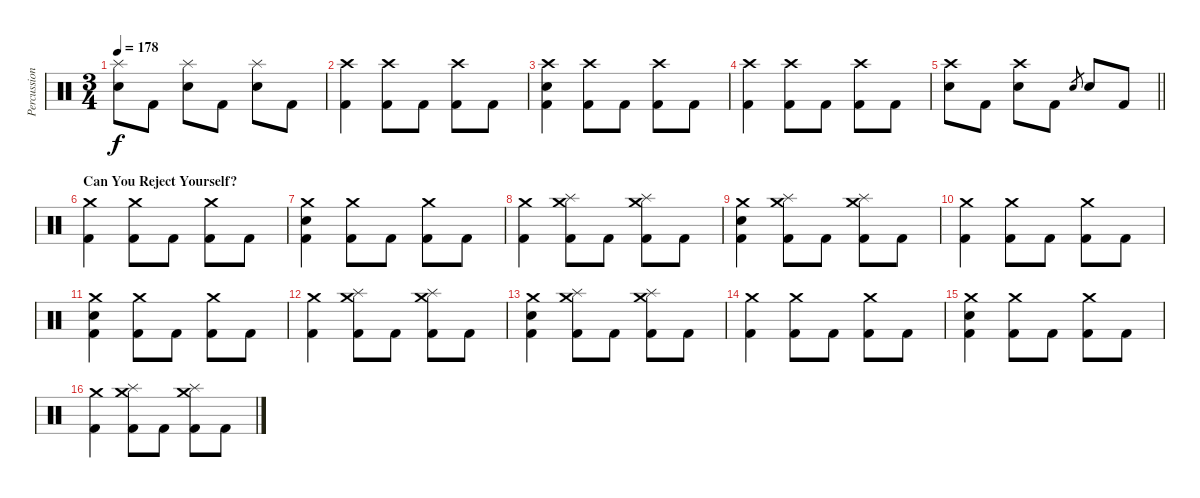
\track ("Percussion" "Percussion") {instrument percussion}
\staff {score}
\articulation defaults
\ts (3 4)
\tempo 178
\clef neutral
\ks c
("Splash (hit)" "Electric Snare (hit)").8{dy f} "Kick (hit) 2".8 ("Splash (hit)" "Electric Snare (hit)").8 "Kick (hit) 2".8 ("Splash (hit)" "Electric Snare (hit)").8 "Kick (hit) 2".8 |
("Crash high (hit)" "Kick (hit) 2").4 ("Crash high (hit)" "Kick (hit) 2").8 "Kick (hit) 2".8 ("Crash high (hit)" "Kick (hit) 2").8 "Kick (hit) 2".8 |
("Crash high (hit)" "Electric Snare (hit)" "Kick (hit) 2").4 ("Crash high (hit)" "Kick (hit) 2").8 "Kick (hit) 2".8 ("Crash high (hit)" "Kick (hit) 2").8 "Kick (hit) 2".8 |
("Crash high (hit)" "Kick (hit) 2").4 ("Crash high (hit)" "Kick (hit) 2").8 "Kick (hit) 2".8 ("Crash high (hit)" "Kick (hit) 2").8 "Kick (hit) 2".8 |
\barLineRight lightlight
("Crash high (hit)" "Electric Snare (hit)").8 "Kick (hit) 2".8 ("Crash high (hit)" "Electric Snare (hit)").8 "Kick (hit) 2".8 "Electric Snare (hit)".8{gr} "Electric Snare (hit)".8 "Kick (hit) 2".8 |
\section ("" "Can You Reject Yourself?")
("Crash medium (hit)" "Kick (hit) 2").4 ("Crash medium (hit)" "Kick (hit) 2").8 "Kick (hit) 2".8 ("Crash medium (hit)" "Kick (hit) 2").8 "Kick (hit) 2".8 |
("Crash medium (hit)" "Electric Snare (hit)" "Kick (hit) 2").4 ("Crash medium (hit)" "Kick (hit) 2").8 "Kick (hit) 2".8 ("Crash medium (hit)" "Kick (hit) 2").8 "Kick (hit) 2".8 |
("Crash medium (hit)" "Kick (hit) 2").4 ("Crash medium (hit)" "Splash (hit)" "Kick (hit) 2").8 "Kick (hit) 2".8 ("Crash medium (hit)" "Splash (hit)" "Kick (hit) 2").8 "Kick (hit) 2".8 |
("Crash medium (hit)" "Electric Snare (hit)" "Kick (hit) 2").4 ("Crash medium (hit)" "Splash (hit)" "Kick (hit) 2").8 "Kick (hit) 2".8 ("Crash medium (hit)" "Splash (hit)" "Kick (hit) 2").8 "Kick (hit) 2".8 |
("Crash medium (hit)" "Kick (hit) 2").4 ("Crash medium (hit)" "Kick (hit) 2").8 "Kick (hit) 2".8 ("Crash medium (hit)" "Kick (hit) 2").8 "Kick (hit) 2".8 |
("Crash medium (hit)" "Electric Snare (hit)" "Kick (hit) 2").4 ("Crash medium (hit)" "Kick (hit) 2").8 "Kick (hit) 2".8 ("Crash medium (hit)" "Kick (hit) 2").8 "Kick (hit) 2".8 |
("Crash medium (hit)" "Kick (hit) 2").4 ("Crash medium (hit)" "Splash (hit)" "Kick (hit) 2").8 "Kick (hit) 2".8 ("Crash medium (hit)" "Splash (hit)" "Kick (hit) 2").8 "Kick (hit) 2".8 |
("Crash medium (hit)" "Electric Snare (hit)" "Kick (hit) 2").4 ("Crash medium (hit)" "Splash (hit)" "Kick (hit) 2").8 "Kick (hit) 2".8 ("Crash medium (hit)" "Splash (hit)" "Kick (hit) 2").8 "Kick (hit) 2".8 |
("Crash medium (hit)" "Kick (hit) 2").4 ("Crash medium (hit)" "Kick (hit) 2").8 "Kick (hit) 2".8 ("Crash medium (hit)" "Kick (hit) 2").8 "Kick (hit) 2".8 |
("Crash medium (hit)" "Electric Snare (hit)" "Kick (hit) 2").4 ("Crash medium (hit)" "Kick (hit) 2").8 "Kick (hit) 2".8 ("Crash medium (hit)" "Kick (hit) 2").8 "Kick (hit) 2".8 |
("Crash medium (hit)" "Kick (hit) 2").4 ("Crash medium (hit)" "Splash (hit)" "Kick (hit) 2").8 "Kick (hit) 2".8 ("Crash medium (hit)" "Splash (hit)" "Kick (hit) 2").8 "Kick (hit) 2".8
